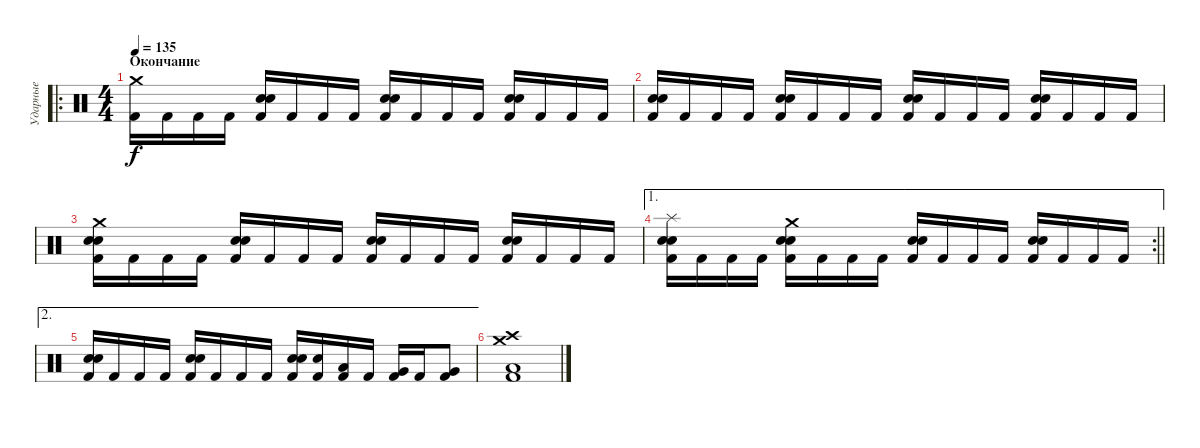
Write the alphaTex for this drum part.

\track ("Ударные" "Ударные") {instrument percussion}
\staff {score}
\articulation defaults
\ro
\ts (4 4)
\section ("" "Окончание")
\tempo 135
\clef neutral
\ks c
("Crash medium (hit)" "Kick (hit) 2").16{dy f} "Kick (hit) 2".16 "Kick (hit) 2".16 "Kick (hit) 2".16 ("Electric Snare (hit)" "Snare (hit) 2" "Kick (hit) 2").16 "Kick (hit) 2".16 "Kick (hit) 2".16 "Kick (hit) 2".16 ("Electric Snare (hit)" "Snare (hit) 2" "Kick (hit) 2").16 "Kick (hit) 2".16 "Kick (hit) 2".16 "Kick (hit) 2".16 ("Electric Snare (hit)" "Snare (hit) 2" "Kick (hit) 2").16 "Kick (hit) 2".16 "Kick (hit) 2".16 "Kick (hit) 2".16 |
("Electric Snare (hit)" "Snare (hit) 2" "Kick (hit) 2").16 "Kick (hit) 2".16 "Kick (hit) 2".16 "Kick (hit) 2".16 ("Electric Snare (hit)" "Snare (hit) 2" "Kick (hit) 2").16 "Kick (hit) 2".16 "Kick (hit) 2".16 "Kick (hit) 2".16 ("Electric Snare (hit)" "Snare (hit) 2" "Kick (hit) 2").16 "Kick (hit) 2".16 "Kick (hit) 2".16 "Kick (hit) 2".16 ("Electric Snare (hit)" "Snare (hit) 2" "Kick (hit) 2").16 "Kick (hit) 2".16 "Kick (hit) 2".16 "Kick (hit) 2".16 |
("Crash medium (hit)" "Electric Snare (hit)" "Snare (hit) 2" "Kick (hit) 2").16 "Kick (hit) 2".16 "Kick (hit) 2".16 "Kick (hit) 2".16 ("Electric Snare (hit)" "Snare (hit) 2" "Kick (hit) 2").16 "Kick (hit) 2".16 "Kick (hit) 2".16 "Kick (hit) 2".16 ("Electric Snare (hit)" "Snare (hit) 2" "Kick (hit) 2").16 "Kick (hit) 2".16 "Kick (hit) 2".16 "Kick (hit) 2".16 ("Electric Snare (hit)" "Snare (hit) 2" "Kick (hit) 2").16 "Kick (hit) 2".16 "Kick (hit) 2".16 "Kick (hit) 2".16 |
\ae 1
\rc 2
\barLineRight lightlight
("Splash (hit)" "Electric Snare (hit)" "Snare (hit) 2" "Kick (hit) 2").16 "Kick (hit) 2".16 "Kick (hit) 2".16 "Kick (hit) 2".16 ("Crash medium (hit)" "Electric Snare (hit)" "Snare (hit) 2" "Kick (hit) 2").16 "Kick (hit) 2".16 "Kick (hit) 2".16 "Kick (hit) 2".16 ("Electric Snare (hit)" "Snare (hit) 2" "Kick (hit) 2").16 "Kick (hit) 2".16 "Kick (hit) 2".16 "Kick (hit) 2".16 ("Electric Snare (hit)" "Snare (hit) 2" "Kick (hit) 2").16 "Kick (hit) 2".16 "Kick (hit) 2".16 "Kick (hit) 2".16 |
\ae 2
("Electric Snare (hit)" "Snare (hit) 2" "Kick (hit) 2").16 "Kick (hit) 2".16 "Kick (hit) 2".16 "Kick (hit) 2".16 ("Electric Snare (hit)" "Snare (hit) 2" "Kick (hit) 2").16 "Kick (hit) 2".16 "Kick (hit) 2".16 "Kick (hit) 2".16 ("Electric Snare (hit)" "Snare (hit) 2" "Kick (hit) 2").16 ("Electric Snare (hit)" "Kick (hit) 2").16 ("Low Tom (hit)" "Kick (hit) 2").16 "Kick (hit) 2".16 ("Very Low Tom (hit)" "Kick (hit) 2").16 "Kick (hit) 2".16 ("Very Low Tom (hit)" "Kick (hit) 2").8 |
("Crash medium (hit)" "Crash high (hit)" "Low Tom (hit)" "Kick (hit) 2").1
